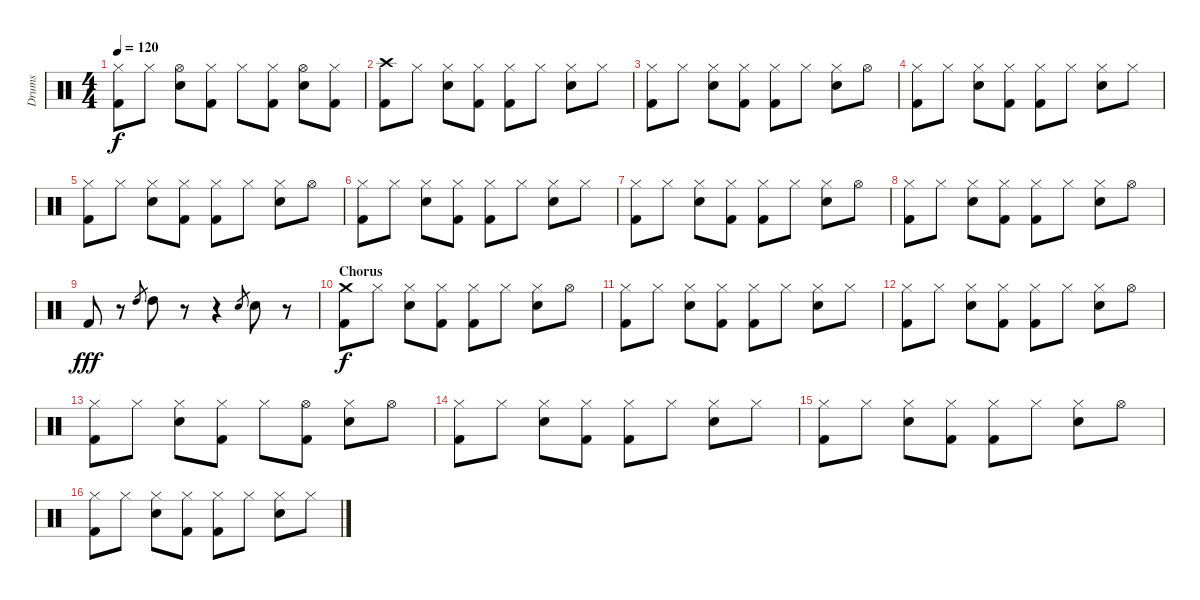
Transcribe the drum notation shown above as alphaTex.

\track ("Drums" "Drums") {instrument percussion}
\staff {score}
\articulation defaults
\ts (4 4)
\tempo 120
\clef neutral
\ks c
("Hi-Hat (closed)" "Kick (hit) 2").8{dy f} "Hi-Hat (closed)".8 ("Hi-Hat (open)" "Snare (hit) 2").8 ("Hi-Hat (closed)" "Kick (hit) 2").8 "Hi-Hat (closed)".8 ("Hi-Hat (closed)" "Kick (hit) 2").8 ("Hi-Hat (open)" "Snare (hit) 2").8 ("Hi-Hat (closed)" "Kick (hit) 2").8 |
("Crash high (hit)" "Kick (hit) 2").8 "Hi-Hat (closed)".8 ("Hi-Hat (closed)" "Snare (hit) 2").8 ("Hi-Hat (closed)" "Kick (hit) 2").8 ("Hi-Hat (closed)" "Kick (hit) 2").8 "Hi-Hat (closed)".8 ("Hi-Hat (closed)" "Snare (hit) 2").8 "Hi-Hat (closed)".8 |
("Hi-Hat (closed)" "Kick (hit) 2").8 "Hi-Hat (closed)".8 ("Hi-Hat (closed)" "Snare (hit) 2").8 ("Hi-Hat (closed)" "Kick (hit) 2").8 ("Hi-Hat (closed)" "Kick (hit) 2").8 "Hi-Hat (closed)".8 ("Hi-Hat (closed)" "Snare (hit) 2").8 "Hi-Hat (open)".8 |
("Hi-Hat (closed)" "Kick (hit) 2").8 "Hi-Hat (closed)".8 ("Hi-Hat (closed)" "Snare (hit) 2").8 ("Hi-Hat (closed)" "Kick (hit) 2").8 ("Hi-Hat (closed)" "Kick (hit) 2").8 "Hi-Hat (closed)".8 ("Hi-Hat (closed)" "Snare (hit) 2").8 "Hi-Hat (closed)".8 |
("Hi-Hat (closed)" "Kick (hit) 2").8 "Hi-Hat (closed)".8 ("Hi-Hat (closed)" "Snare (hit) 2").8 ("Hi-Hat (closed)" "Kick (hit) 2").8 ("Hi-Hat (closed)" "Kick (hit) 2").8 "Hi-Hat (closed)".8 ("Hi-Hat (closed)" "Snare (hit) 2").8 "Hi-Hat (open)".8 |
("Hi-Hat (closed)" "Kick (hit) 2").8 "Hi-Hat (closed)".8 ("Hi-Hat (closed)" "Snare (hit) 2").8 ("Hi-Hat (closed)" "Kick (hit) 2").8 ("Hi-Hat (closed)" "Kick (hit) 2").8 "Hi-Hat (closed)".8 ("Hi-Hat (closed)" "Snare (hit) 2").8 "Hi-Hat (closed)".8 |
("Hi-Hat (closed)" "Kick (hit) 2").8 "Hi-Hat (closed)".8 ("Hi-Hat (closed)" "Snare (hit) 2").8 ("Hi-Hat (closed)" "Kick (hit) 2").8 ("Hi-Hat (closed)" "Kick (hit) 2").8 "Hi-Hat (closed)".8 ("Hi-Hat (closed)" "Snare (hit) 2").8 "Hi-Hat (open)".8 |
("Hi-Hat (closed)" "Kick (hit) 2").8 "Hi-Hat (closed)".8 ("Hi-Hat (closed)" "Snare (hit) 2").8 ("Hi-Hat (closed)" "Kick (hit) 2").8 ("Hi-Hat (closed)" "Kick (hit) 2").8 "Hi-Hat (closed)".8 ("Hi-Hat (closed)" "Snare (hit) 2").8 "Hi-Hat (open)".8 |
"Kick (hit) 2".8{dy fff volume 14} r.8 "High Tom (hit)".8{gr} "High Tom (hit)".8 r.8 r.4 "Snare (hit) 2".8{gr} "Snare (hit) 2".8 r.8 |
\section ("" "Chorus")
("Crash medium (hit)" "Kick (hit) 2").8{dy f volume 11} "Hi-Hat (closed)".8 ("Hi-Hat (closed)" "Snare (hit) 2").8 ("Hi-Hat (closed)" "Kick (hit) 2").8 ("Hi-Hat (closed)" "Kick (hit) 2").8 "Hi-Hat (closed)".8 ("Hi-Hat (closed)" "Snare (hit) 2").8 "Hi-Hat (open)".8 |
("Hi-Hat (closed)" "Kick (hit) 2").8 "Hi-Hat (closed)".8 ("Hi-Hat (closed)" "Snare (hit) 2").8 ("Hi-Hat (closed)" "Kick (hit) 2").8 ("Hi-Hat (closed)" "Kick (hit) 2").8 "Hi-Hat (closed)".8 ("Hi-Hat (closed)" "Snare (hit) 2").8 "Hi-Hat (closed)".8 |
("Hi-Hat (closed)" "Kick (hit) 2").8 "Hi-Hat (closed)".8 ("Hi-Hat (closed)" "Snare (hit) 2").8 ("Hi-Hat (closed)" "Kick (hit) 2").8 ("Hi-Hat (closed)" "Kick (hit) 2").8 "Hi-Hat (closed)".8 ("Hi-Hat (closed)" "Snare (hit) 2").8 "Hi-Hat (open)".8 |
("Hi-Hat (closed)" "Kick (hit) 2").8 "Hi-Hat (closed)".8 ("Hi-Hat (closed)" "Snare (hit) 2").8 ("Hi-Hat (closed)" "Kick (hit) 2").8 "Hi-Hat (closed)".8 ("Hi-Hat (open)" "Kick (hit) 2").8 ("Hi-Hat (closed)" "Snare (hit) 2").8 "Hi-Hat (open)".8 |
("Hi-Hat (closed)" "Kick (hit) 2").8 "Hi-Hat (closed)".8 ("Hi-Hat (closed)" "Snare (hit) 2").8 ("Hi-Hat (closed)" "Kick (hit) 2").8 ("Hi-Hat (closed)" "Kick (hit) 2").8 "Hi-Hat (closed)".8 ("Hi-Hat (closed)" "Snare (hit) 2").8 "Hi-Hat (closed)".8 |
("Hi-Hat (closed)" "Kick (hit) 2").8 "Hi-Hat (closed)".8 ("Hi-Hat (closed)" "Snare (hit) 2").8 ("Hi-Hat (closed)" "Kick (hit) 2").8 ("Hi-Hat (closed)" "Kick (hit) 2").8 "Hi-Hat (closed)".8 ("Hi-Hat (closed)" "Snare (hit) 2").8 "Hi-Hat (open)".8 |
("Hi-Hat (closed)" "Kick (hit) 2").8 "Hi-Hat (closed)".8 ("Hi-Hat (closed)" "Snare (hit) 2").8 ("Hi-Hat (closed)" "Kick (hit) 2").8 ("Hi-Hat (closed)" "Kick (hit) 2").8 "Hi-Hat (closed)".8 ("Hi-Hat (closed)" "Snare (hit) 2").8 "Hi-Hat (closed)".8
